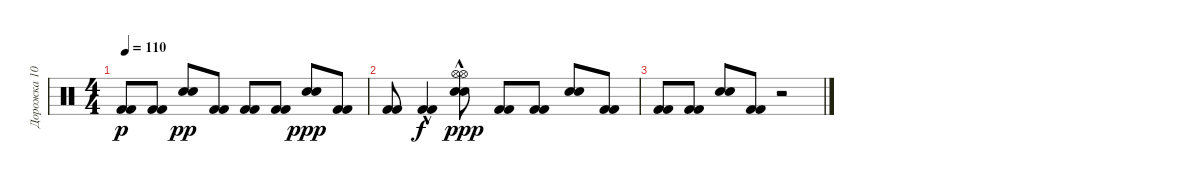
\track ("Дорожка 10" "Дорожка 10") {instrument percussion}
\staff {score}
\articulation defaults
\ts (4 4)
\tempo 110
\clef neutral
\ks c
("Kick (hit) 2" "Kick (hit) 2").8{dy p} ("Kick (hit) 2" "Kick (hit) 2").8 ("Snare (hit) 2" "Snare (hit) 2").8{dy pp} ("Kick (hit) 2" "Kick (hit) 2").8 ("Kick (hit) 2" "Kick (hit) 2").8 ("Kick (hit) 2" "Kick (hit) 2").8 ("Snare (hit) 2" "Snare (hit) 2").8{dy ppp} ("Kick (hit) 2" "Kick (hit) 2").8 |
("Kick (hit) 2" "Kick (hit) 2").8 ("Kick (hit) 2"{hac} "Kick (hit) 2"{hac}).4{dy f} ("Snare (hit) 2"{hac} "Hi-Hat (open)" "Snare (hit) 2"{hac} "Hi-Hat (open)").8{dy ppp} ("Kick (hit) 2" "Kick (hit) 2").8 ("Kick (hit) 2" "Kick (hit) 2").8 ("Snare (hit) 2" "Snare (hit) 2").8 ("Kick (hit) 2" "Kick (hit) 2").8 |
("Kick (hit) 2" "Kick (hit) 2").8 ("Kick (hit) 2" "Kick (hit) 2").8 ("Snare (hit) 2" "Snare (hit) 2").8 ("Kick (hit) 2" "Kick (hit) 2").8 r.2
